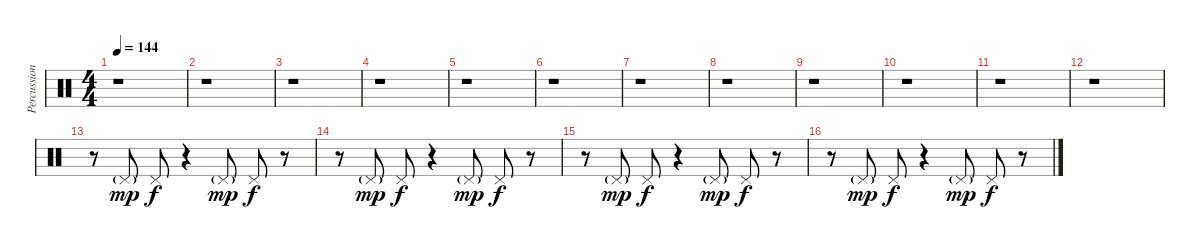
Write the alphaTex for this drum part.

\track ("Percussion" "Percussion") {instrument percussion}
\staff {score}
\articulation defaults
\ts (4 4)
\tempo 144
\clef neutral
\ks c
r.1{dy mp} |
r.1 |
r.1 |
r.1 |
r.1 |
r.1 |
r.1 |
r.1 |
r.1 |
r.1 |
r.1 |
r.1 |
r.8 "Pedal Hi-Hat (hit)"{g}.8 "Pedal Hi-Hat (hit)".8{dy f} r.4 "Pedal Hi-Hat (hit)"{g}.8{dy mp} "Pedal Hi-Hat (hit)".8{dy f} r.8 |
r.8 "Pedal Hi-Hat (hit)"{g}.8{dy mp} "Pedal Hi-Hat (hit)".8{dy f} r.4 "Pedal Hi-Hat (hit)"{g}.8{dy mp} "Pedal Hi-Hat (hit)".8{dy f} r.8 |
r.8 "Pedal Hi-Hat (hit)"{g}.8{dy mp} "Pedal Hi-Hat (hit)".8{dy f} r.4 "Pedal Hi-Hat (hit)"{g}.8{dy mp} "Pedal Hi-Hat (hit)".8{dy f} r.8 |
r.8 "Pedal Hi-Hat (hit)"{g}.8{dy mp} "Pedal Hi-Hat (hit)".8{dy f} r.4 "Pedal Hi-Hat (hit)"{g}.8{dy mp} "Pedal Hi-Hat (hit)".8{dy f} r.8
